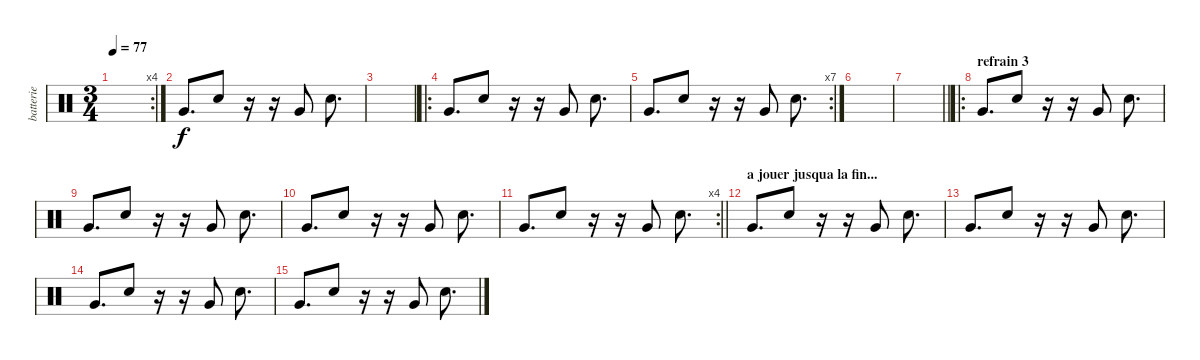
\track ("batterie" "batterie") {instrument percussion}
\staff {score}
\articulation defaults
\rc 4
\ts (3 4)
\tempo 77
\clef neutral
\ks c
|
"Very Low Tom (hit)".8{d} "Snare (hit) 2".8 r.16 r.16 "Very Low Tom (hit)".8 "Snare (hit) 2".8{d} |
|
\ro "Very Low Tom (hit)".8{d} "Snare (hit) 2".8
r.16 r.16 "Very Low Tom (hit)".8 "Snare (hit) 2".8{d} |
\rc 7 "Very Low Tom (hit)".8{d} "Snare (hit) 2".8
r.16 r.16 "Very Low Tom (hit)".8 "Snare (hit) 2".8{d} |
|
\barLineRight lightlight
|
\ro
\section ("" "refrain 3")
"Very Low Tom (hit)".8{d} "Snare (hit) 2".8 r.16 r.16 "Very Low Tom (hit)".8 "Snare (hit) 2".8{d} |
"Very Low Tom (hit)".8{d} "Snare (hit) 2".8 r.16 r.16 "Very Low Tom (hit)".8 "Snare (hit) 2".8{d} |
"Very Low Tom (hit)".8{d} "Snare (hit) 2".8 r.16 r.16 "Very Low Tom (hit)".8 "Snare (hit) 2".8{d} |
\rc 4
\barLineRight lightlight "Very Low Tom (hit)".8{d} "Snare (hit) 2".8
r.16 r.16 "Very Low Tom (hit)".8 "Snare (hit) 2".8{d} |
\section ("" "a jouer jusqua la fin...")
"Very Low Tom (hit)".8{d} "Snare (hit) 2".8 r.16 r.16 "Very Low Tom (hit)".8 "Snare (hit) 2".8{d} |
"Very Low Tom (hit)".8{d} "Snare (hit) 2".8 r.16 r.16 "Very Low Tom (hit)".8 "Snare (hit) 2".8{d} |
"Very Low Tom (hit)".8{d} "Snare (hit) 2".8 r.16 r.16 "Very Low Tom (hit)".8 "Snare (hit) 2".8{d} |
"Very Low Tom (hit)".8{d} "Snare (hit) 2".8 r.16 r.16 "Very Low Tom (hit)".8 "Snare (hit) 2".8{d}
